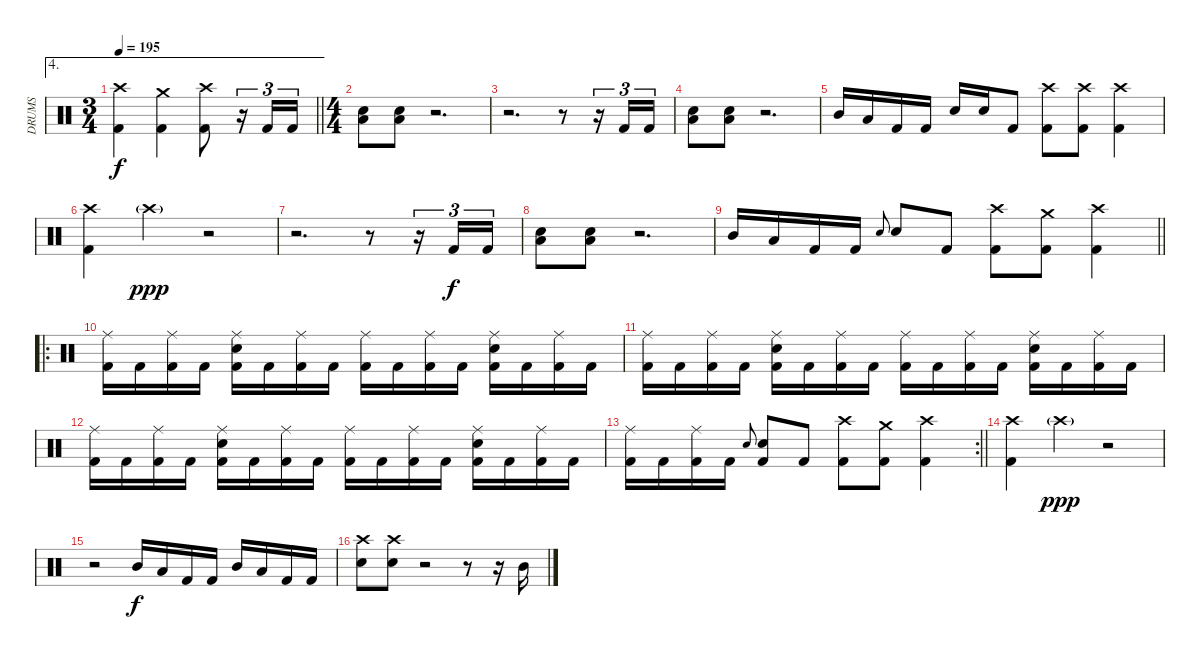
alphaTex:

\track ("DRUMS" "DRUMS") {instrument percussion}
\staff {score}
\articulation defaults
\ae 4
\ts (3 4)
\tempo 195
\clef neutral
\barLineRight lightlight
\ks c
("Crash high (hit)" "Kick (hit) 2").4{dy f} ("Crash medium (hit)" "Kick (hit) 2").4 ("Crash high (hit)" "Kick (hit) 2").8 r.16{tu (3 2)} "Kick (hit) 2".16{tu (3 2)} "Kick (hit) 2".16{tu (3 2)} |
\ts (4 4)
("Low Floor Tom (hit)" "Snare (hit) 2").8 ("Low Floor Tom (hit)" "Snare (hit) 2").8 r.2{d} |
r.2{d} r.8 r.16{tu (3 2)} "Kick (hit) 2".16{tu (3 2)} "Kick (hit) 2".16{tu (3 2)} |
("Low Floor Tom (hit)" "Snare (hit) 2").8 ("Low Floor Tom (hit)" "Snare (hit) 2").8 r.2{d} |
"Mid Tom (hit)".16 "Low Floor Tom (hit)".16 "Kick (hit) 2".16 "Kick (hit) 2".16 "Snare (hit) 2".16 "Snare (hit) 2".16 "Kick (hit) 2".8 ("Crash high (hit)" "Kick (hit) 2").8 ("Crash high (hit)" "Kick (hit) 2").8 ("Crash high (hit)" "Kick (hit) 2").4 |
("Crash high (hit)" "Kick (hit) 2").4 "Crash high (hit)"{g}.4{dy ppp} r.2 |
r.2{d} r.8 r.16{tu (3 2)} "Kick (hit) 2".16{tu (3 2) dy f} "Kick (hit) 2".16{tu (3 2)} |
("Low Floor Tom (hit)" "Snare (hit) 2").8 ("Low Floor Tom (hit)" "Snare (hit) 2").8 r.2{d} |
\barLineRight lightlight "Mid Tom (hit)".16 "Low Floor Tom (hit)".16 "Kick (hit) 2".16 "Kick (hit) 2".16 "Snare (hit) 2".8{gr onbeat} "Snare (hit) 2".8 "Kick (hit) 2".8
("Crash high (hit)" "Kick (hit) 2").8 ("Crash medium (hit)" "Kick (hit) 2").8 ("Crash high (hit)" "Kick (hit) 2").4 |
\ro
("Ride (middle)" "Kick (hit) 2").16 "Kick (hit) 2".16 ("Ride (middle)" "Kick (hit) 2").16 "Kick (hit) 2".16 ("Ride (middle)" "Snare (hit) 2" "Kick (hit) 2").16 "Kick (hit) 2".16 ("Ride (middle)" "Kick (hit) 2").16 "Kick (hit) 2".16 ("Ride (middle)" "Kick (hit) 2").16 "Kick (hit) 2".16 ("Ride (middle)" "Kick (hit) 2").16 "Kick (hit) 2".16 ("Ride (middle)" "Snare (hit) 2" "Kick (hit) 2").16 "Kick (hit) 2".16 ("Ride (middle)" "Kick (hit) 2").16 "Kick (hit) 2".16 |
("Ride (middle)" "Kick (hit) 2").16 "Kick (hit) 2".16 ("Ride (middle)" "Kick (hit) 2").16 "Kick (hit) 2".16 ("Ride (middle)" "Snare (hit) 2" "Kick (hit) 2").16 "Kick (hit) 2".16 ("Ride (middle)" "Kick (hit) 2").16 "Kick (hit) 2".16 ("Ride (middle)" "Kick (hit) 2").16 "Kick (hit) 2".16 ("Ride (middle)" "Kick (hit) 2").16 "Kick (hit) 2".16 ("Ride (middle)" "Snare (hit) 2" "Kick (hit) 2").16 "Kick (hit) 2".16 ("Ride (middle)" "Kick (hit) 2").16 "Kick (hit) 2".16 |
("Ride (middle)" "Kick (hit) 2").16 "Kick (hit) 2".16 ("Ride (middle)" "Kick (hit) 2").16 "Kick (hit) 2".16 ("Ride (middle)" "Snare (hit) 2" "Kick (hit) 2").16 "Kick (hit) 2".16 ("Ride (middle)" "Kick (hit) 2").16 "Kick (hit) 2".16 ("Ride (middle)" "Kick (hit) 2").16 "Kick (hit) 2".16 ("Ride (middle)" "Kick (hit) 2").16 "Kick (hit) 2".16 ("Ride (middle)" "Snare (hit) 2" "Kick (hit) 2").16 "Kick (hit) 2".16 ("Ride (middle)" "Kick (hit) 2").16 "Kick (hit) 2".16 |
\rc 2
\barLineRight lightlight
("Ride (middle)" "Kick (hit) 2").16 "Kick (hit) 2".16 ("Ride (middle)" "Kick (hit) 2").16 "Kick (hit) 2".16 "Snare (hit) 2".8{gr onbeat} ("Snare (hit) 2" "Kick (hit) 2").8 "Kick (hit) 2".8 ("Crash high (hit)" "Kick (hit) 2").8 ("Crash medium (hit)" "Kick (hit) 2").8 ("Crash high (hit)" "Kick (hit) 2").4 |
("Crash high (hit)" "Kick (hit) 2").4 "Crash high (hit)"{g}.4{dy ppp} r.2 |
r.2 "Mid Tom (hit)".16{dy f} "Low Tom (hit)".16 "Kick (hit) 2".16 "Kick (hit) 2".16 "Mid Tom (hit)".16 "Low Tom (hit)".16 "Kick (hit) 2".16 "Kick (hit) 2".16 |
("Crash high (hit)" "Snare (hit) 2").8 ("Crash high (hit)" "Snare (hit) 2").8 r.2 r.8 r.16 "Mid Tom (hit)".16
